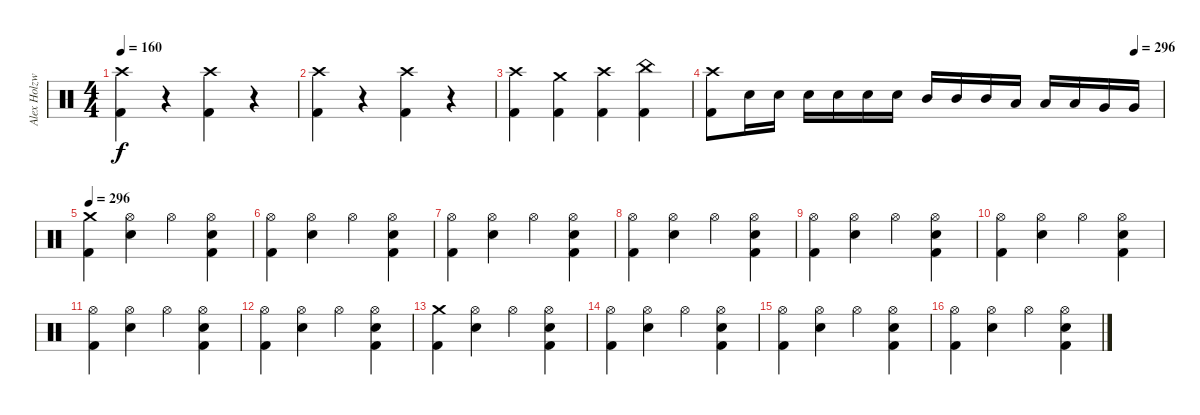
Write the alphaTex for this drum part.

\track ("Alex Holzwarth" "Alex Holzw") {instrument percussion}
\staff {score}
\articulation defaults
\ts (4 4)
\tempo 160
\clef neutral
\ks c
("Crash high (hit)" "Kick (hit) 2").4{dy f} r.4 ("Crash high (hit)" "Kick (hit) 2").4 r.4 |
("Crash high (hit)" "Kick (hit) 2").4 r.4 ("Crash high (hit)" "Kick (hit) 2").4 r.4 |
("Crash high (hit)" "Kick (hit) 2").4 ("Crash medium (hit)" "Kick (hit) 2").4 ("Crash high (hit)" "Kick (hit) 2").4 ("China (hit)" "Kick (hit) 2").4 |
\tempo (296 0.9375)
("Crash high (hit)" "Kick (hit) 2").8 "Snare (hit) 2".16 "Snare (hit) 2".16 "Snare (hit) 2".16 "Snare (hit) 2".16 "Snare (hit) 2".16 "Snare (hit) 2".16 "Mid Tom (hit)".16 "Mid Tom (hit)".16 "Mid Tom (hit)".16 "Low Tom (hit)".16 "Low Tom (hit)".16 "Low Tom (hit)".16 "Very Low Tom (hit)".16 "Very Low Tom (hit)".16 |
\tempo 296
("Crash medium (hit)" "Kick (hit) 2").4 ("Hi-Hat (open)" "Snare (hit) 2").4 "Hi-Hat (open)".4 ("Hi-Hat (open)" "Snare (hit) 2" "Kick (hit) 2").4 |
("Hi-Hat (open)" "Kick (hit) 2").4 ("Hi-Hat (open)" "Snare (hit) 2").4 "Hi-Hat (open)".4 ("Hi-Hat (open)" "Snare (hit) 2" "Kick (hit) 2").4 |
("Hi-Hat (open)" "Kick (hit) 2").4 ("Hi-Hat (open)" "Snare (hit) 2").4 "Hi-Hat (open)".4 ("Hi-Hat (open)" "Snare (hit) 2" "Kick (hit) 2").4 |
("Hi-Hat (open)" "Kick (hit) 2").4 ("Hi-Hat (open)" "Snare (hit) 2").4 "Hi-Hat (open)".4 ("Hi-Hat (open)" "Snare (hit) 2" "Kick (hit) 2").4 |
("Hi-Hat (open)" "Kick (hit) 2").4 ("Hi-Hat (open)" "Snare (hit) 2").4 "Hi-Hat (open)".4 ("Hi-Hat (open)" "Snare (hit) 2" "Kick (hit) 2").4 |
("Hi-Hat (open)" "Kick (hit) 2").4 ("Hi-Hat (open)" "Snare (hit) 2").4 "Hi-Hat (open)".4 ("Hi-Hat (open)" "Snare (hit) 2" "Kick (hit) 2").4 |
("Hi-Hat (open)" "Kick (hit) 2").4 ("Hi-Hat (open)" "Snare (hit) 2").4 "Hi-Hat (open)".4 ("Hi-Hat (open)" "Snare (hit) 2" "Kick (hit) 2").4 |
("Hi-Hat (open)" "Kick (hit) 2").4 ("Hi-Hat (open)" "Snare (hit) 2").4 "Hi-Hat (open)".4 ("Hi-Hat (open)" "Snare (hit) 2" "Kick (hit) 2").4 |
("Crash medium (hit)" "Kick (hit) 2").4 ("Hi-Hat (open)" "Snare (hit) 2").4 "Hi-Hat (open)".4 ("Hi-Hat (open)" "Snare (hit) 2" "Kick (hit) 2").4 |
("Hi-Hat (open)" "Kick (hit) 2").4 ("Hi-Hat (open)" "Snare (hit) 2").4 "Hi-Hat (open)".4 ("Hi-Hat (open)" "Snare (hit) 2" "Kick (hit) 2").4 |
("Hi-Hat (open)" "Kick (hit) 2").4 ("Hi-Hat (open)" "Snare (hit) 2").4 "Hi-Hat (open)".4 ("Hi-Hat (open)" "Snare (hit) 2" "Kick (hit) 2").4 |
("Hi-Hat (open)" "Kick (hit) 2").4 ("Hi-Hat (open)" "Snare (hit) 2").4 "Hi-Hat (open)".4 ("Hi-Hat (open)" "Snare (hit) 2" "Kick (hit) 2").4
